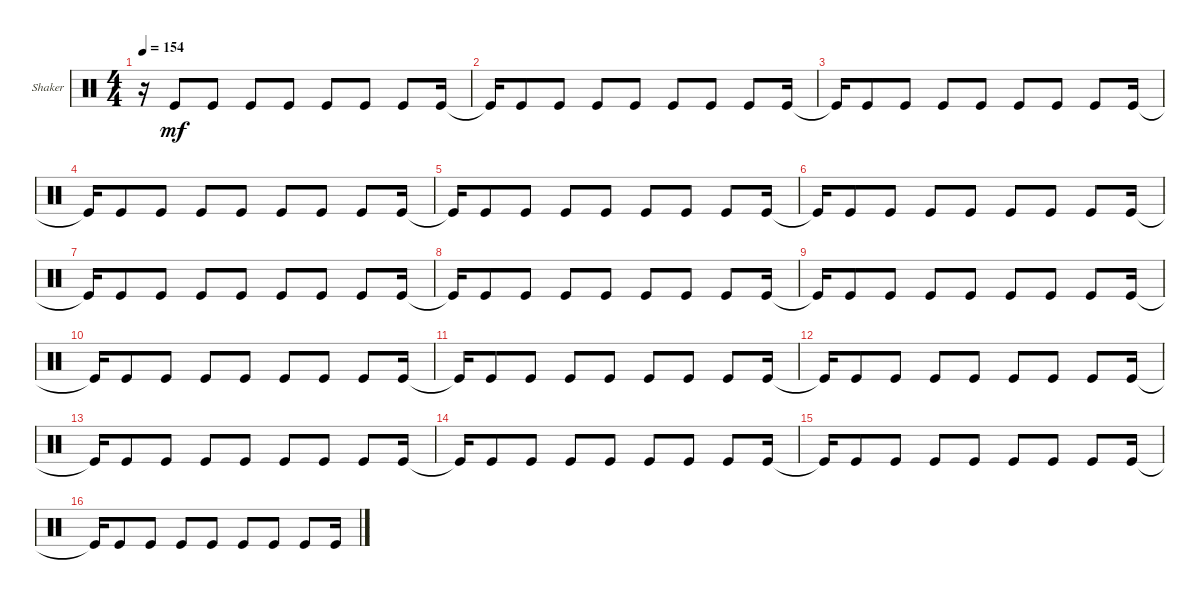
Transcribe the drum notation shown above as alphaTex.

\defaultSystemsLayout 4
\bracketExtendMode groupsimilarinstruments
\firstSystemTrackNameOrientation horizontal
\otherSystemsTrackNameOrientation horizontal
\track ("Shaker" "Shaker") {instrument percussion}
\staff {score}
\articulation defaults
\ts (4 4)
\tempo 154
\clef neutral
\ks c
r.16{dy mf} "Kick (hit)".8 "Kick (hit)".8 "Kick (hit)".8 "Kick (hit)".8 "Kick (hit)".8 "Kick (hit)".8 "Kick (hit)".8 "Kick (hit)".16 |
"Kick (hit)"{t}.16 "Kick (hit)".8 "Kick (hit)".8 "Kick (hit)".8 "Kick (hit)".8 "Kick (hit)".8 "Kick (hit)".8 "Kick (hit)".8 "Kick (hit)".16 |
"Kick (hit)"{t}.16 "Kick (hit)".8 "Kick (hit)".8 "Kick (hit)".8 "Kick (hit)".8 "Kick (hit)".8 "Kick (hit)".8 "Kick (hit)".8 "Kick (hit)".16 |
"Kick (hit)"{t}.16 "Kick (hit)".8 "Kick (hit)".8 "Kick (hit)".8 "Kick (hit)".8 "Kick (hit)".8 "Kick (hit)".8 "Kick (hit)".8 "Kick (hit)".16 |
"Kick (hit)"{t}.16 "Kick (hit)".8 "Kick (hit)".8 "Kick (hit)".8 "Kick (hit)".8 "Kick (hit)".8 "Kick (hit)".8 "Kick (hit)".8 "Kick (hit)".16 |
"Kick (hit)"{t}.16 "Kick (hit)".8 "Kick (hit)".8 "Kick (hit)".8 "Kick (hit)".8 "Kick (hit)".8 "Kick (hit)".8 "Kick (hit)".8 "Kick (hit)".16 |
"Kick (hit)"{t}.16 "Kick (hit)".8 "Kick (hit)".8 "Kick (hit)".8 "Kick (hit)".8 "Kick (hit)".8 "Kick (hit)".8 "Kick (hit)".8 "Kick (hit)".16 |
"Kick (hit)"{t}.16 "Kick (hit)".8 "Kick (hit)".8 "Kick (hit)".8 "Kick (hit)".8 "Kick (hit)".8 "Kick (hit)".8 "Kick (hit)".8 "Kick (hit)".16 |
"Kick (hit)"{t}.16 "Kick (hit)".8 "Kick (hit)".8 "Kick (hit)".8 "Kick (hit)".8 "Kick (hit)".8 "Kick (hit)".8 "Kick (hit)".8 "Kick (hit)".16 |
"Kick (hit)"{t}.16 "Kick (hit)".8 "Kick (hit)".8 "Kick (hit)".8 "Kick (hit)".8 "Kick (hit)".8 "Kick (hit)".8 "Kick (hit)".8 "Kick (hit)".16 |
"Kick (hit)"{t}.16 "Kick (hit)".8 "Kick (hit)".8 "Kick (hit)".8 "Kick (hit)".8 "Kick (hit)".8 "Kick (hit)".8 "Kick (hit)".8 "Kick (hit)".16 |
"Kick (hit)"{t}.16 "Kick (hit)".8 "Kick (hit)".8 "Kick (hit)".8 "Kick (hit)".8 "Kick (hit)".8 "Kick (hit)".8 "Kick (hit)".8 "Kick (hit)".16 |
"Kick (hit)"{t}.16 "Kick (hit)".8 "Kick (hit)".8 "Kick (hit)".8 "Kick (hit)".8 "Kick (hit)".8 "Kick (hit)".8 "Kick (hit)".8 "Kick (hit)".16 |
"Kick (hit)"{t}.16 "Kick (hit)".8 "Kick (hit)".8 "Kick (hit)".8 "Kick (hit)".8 "Kick (hit)".8 "Kick (hit)".8 "Kick (hit)".8 "Kick (hit)".16 |
"Kick (hit)"{t}.16 "Kick (hit)".8 "Kick (hit)".8 "Kick (hit)".8 "Kick (hit)".8 "Kick (hit)".8 "Kick (hit)".8 "Kick (hit)".8 "Kick (hit)".16 |
"Kick (hit)"{t}.16 "Kick (hit)".8 "Kick (hit)".8 "Kick (hit)".8 "Kick (hit)".8 "Kick (hit)".8 "Kick (hit)".8 "Kick (hit)".8 "Kick (hit)".16
